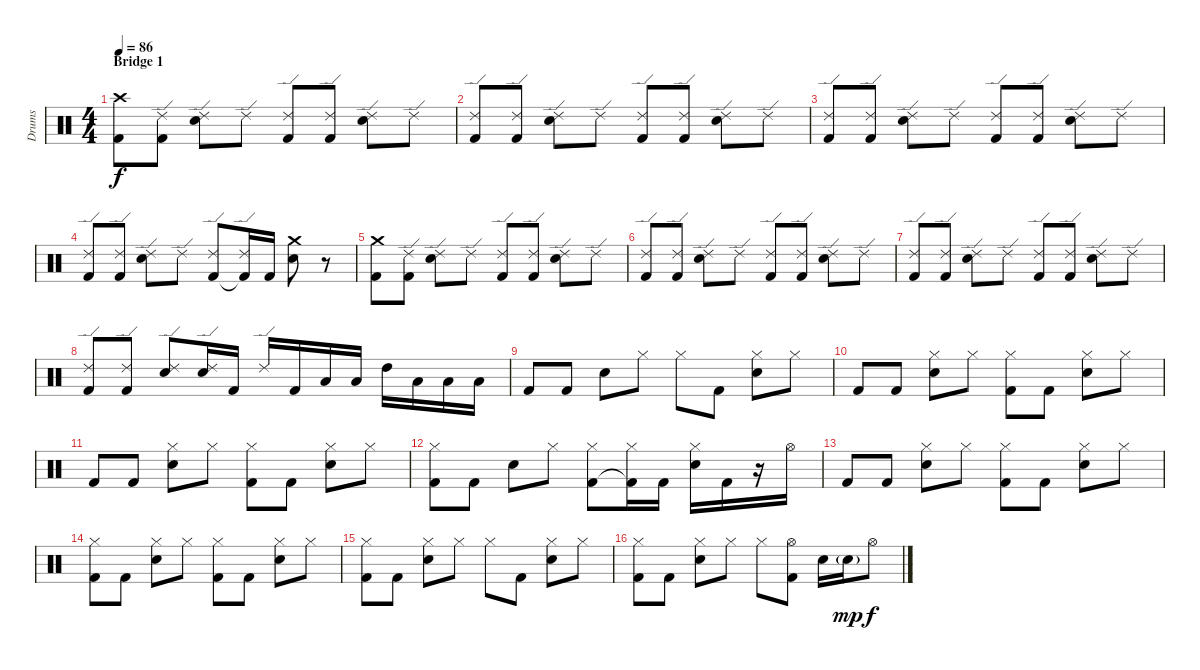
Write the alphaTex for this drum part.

\track ("Drums" "Drums") {instrument percussion}
\staff {score}
\articulation defaults
\ts (4 4)
\section ("" "Bridge 1")
\tempo 86
\clef neutral
\ks aminor
("Crash high (hit)" "Kick (hit) 2").8{dy f} ("Ride (edge) 2" "Kick (hit) 2").8 ("Ride (edge) 2" "Snare (hit) 2").8 "Ride (edge) 2".8 ("Ride (edge) 2" "Kick (hit) 2").8 ("Ride (edge) 2" "Kick (hit) 2").8 ("Ride (edge) 2" "Snare (hit) 2").8 "Ride (edge) 2".8 |
("Ride (edge) 2" "Kick (hit) 2").8 ("Ride (edge) 2" "Kick (hit) 2").8 ("Ride (edge) 2" "Snare (hit) 2").8 "Ride (edge) 2".8 ("Ride (edge) 2" "Kick (hit) 2").8 ("Ride (edge) 2" "Kick (hit) 2").8 ("Ride (edge) 2" "Snare (hit) 2").8 "Ride (edge) 2".8 |
("Ride (edge) 2" "Kick (hit) 2").8 ("Ride (edge) 2" "Kick (hit) 2").8 ("Ride (edge) 2" "Snare (hit) 2").8 "Ride (edge) 2".8 ("Ride (edge) 2" "Kick (hit) 2").8 ("Ride (edge) 2" "Kick (hit) 2").8 ("Ride (edge) 2" "Snare (hit) 2").8 "Ride (edge) 2".8 |
("Ride (edge) 2" "Kick (hit) 2").8 ("Ride (edge) 2" "Kick (hit) 2").8 ("Ride (edge) 2" "Snare (hit) 2").8 "Ride (edge) 2".8 ("Ride (edge) 2" "Kick (hit) 2").8 ("Ride (edge) 2" "Kick (hit) 2"{t}).16 "Kick (hit) 2".16 ("Crash medium (hit)" "Snare (hit) 2").8 r.8 |
("Crash medium (hit)" "Kick (hit) 2").8 ("Ride (edge) 2" "Kick (hit) 2").8 ("Ride (edge) 2" "Snare (hit) 2").8 "Ride (edge) 2".8 ("Ride (edge) 2" "Kick (hit) 2").8 ("Ride (edge) 2" "Kick (hit) 2").8 ("Ride (edge) 2" "Snare (hit) 2").8 "Ride (edge) 2".8 |
("Ride (edge) 2" "Kick (hit) 2").8 ("Ride (edge) 2" "Kick (hit) 2").8 ("Ride (edge) 2" "Snare (hit) 2").8 "Ride (edge) 2".8 ("Ride (edge) 2" "Kick (hit) 2").8 ("Ride (edge) 2" "Kick (hit) 2").8 ("Ride (edge) 2" "Snare (hit) 2").8 "Ride (edge) 2".8 |
("Ride (edge) 2" "Kick (hit) 2").8 ("Ride (edge) 2" "Kick (hit) 2").8 ("Ride (edge) 2" "Snare (hit) 2").8 "Ride (edge) 2".8 ("Ride (edge) 2" "Kick (hit) 2").8 ("Ride (edge) 2" "Kick (hit) 2").8 ("Ride (edge) 2" "Snare (hit) 2").8 "Ride (edge) 2".8 |
("Ride (edge) 2" "Kick (hit) 2").8 ("Ride (edge) 2" "Kick (hit) 2").8 ("Ride (edge) 2" "Snare (hit) 2").8 ("Ride (edge) 2" "Snare (hit) 2").16 "Kick (hit) 2".16 "Ride (edge) 2".16 "Kick (hit) 2".16 "Low Tom (hit)".16 "Low Tom (hit)".16 "High Tom (hit)".16 "Low Floor Tom (hit)".16 "Low Floor Tom (hit)".16 "Low Floor Tom (hit)".16 |
"Kick (hit) 2".8 "Kick (hit) 2".8 "Snare (hit) 2".8 "Hi-Hat (closed)".8 "Hi-Hat (closed)".8 "Kick (hit) 2".8 ("Hi-Hat (closed)" "Snare (hit) 2").8 "Hi-Hat (closed)".8 |
"Kick (hit) 2".8 "Kick (hit) 2".8 ("Hi-Hat (closed)" "Snare (hit) 2").8 "Hi-Hat (closed)".8 ("Hi-Hat (closed)" "Kick (hit) 2").8 "Kick (hit) 2".8 ("Hi-Hat (closed)" "Snare (hit) 2").8 "Hi-Hat (closed)".8 |
"Kick (hit) 2".8 "Kick (hit) 2".8 ("Hi-Hat (closed)" "Snare (hit) 2").8 "Hi-Hat (closed)".8 ("Hi-Hat (closed)" "Kick (hit) 2").8 "Kick (hit) 2".8 ("Hi-Hat (closed)" "Snare (hit) 2").8 "Hi-Hat (closed)".8 |
("Hi-Hat (closed)" "Kick (hit) 2").8 "Kick (hit) 2".8 "Snare (hit) 2".8 "Hi-Hat (closed)".8 ("Hi-Hat (closed)" "Kick (hit) 2").8 ("Hi-Hat (closed)" "Kick (hit) 2"{t}).16 "Kick (hit) 2".16 ("Hi-Hat (closed)" "Snare (hit) 2").16 "Kick (hit) 2".16 r.16 "Hi-Hat (open)".16 |
"Kick (hit) 2".8 "Kick (hit) 2".8 ("Hi-Hat (closed)" "Snare (hit) 2").8 "Hi-Hat (closed)".8 ("Hi-Hat (closed)" "Kick (hit) 2").8 "Kick (hit) 2".8 ("Hi-Hat (closed)" "Snare (hit) 2").8 "Hi-Hat (closed)".8 |
("Hi-Hat (closed)" "Kick (hit) 2").8 "Kick (hit) 2".8 ("Hi-Hat (closed)" "Snare (hit) 2").8 "Hi-Hat (closed)".8 ("Hi-Hat (closed)" "Kick (hit) 2").8 "Kick (hit) 2".8 ("Hi-Hat (closed)" "Snare (hit) 2").8 "Hi-Hat (closed)".8 |
("Hi-Hat (closed)" "Kick (hit) 2").8 "Kick (hit) 2".8 ("Hi-Hat (closed)" "Snare (hit) 2").8 "Hi-Hat (closed)".8 "Hi-Hat (closed)".8 "Kick (hit) 2".8 ("Hi-Hat (closed)" "Snare (hit) 2").8 "Hi-Hat (closed)".8 |
("Hi-Hat (closed)" "Kick (hit) 2").8 "Kick (hit) 2".8 ("Hi-Hat (closed)" "Snare (hit) 2").8 "Hi-Hat (closed)".8 "Hi-Hat (closed)".8 ("Hi-Hat (open)" "Kick (hit) 2").8 "Snare (hit) 2".16 "Snare (hit) 2"{g}.16{dy mp} "Hi-Hat (open)".8{dy f}
